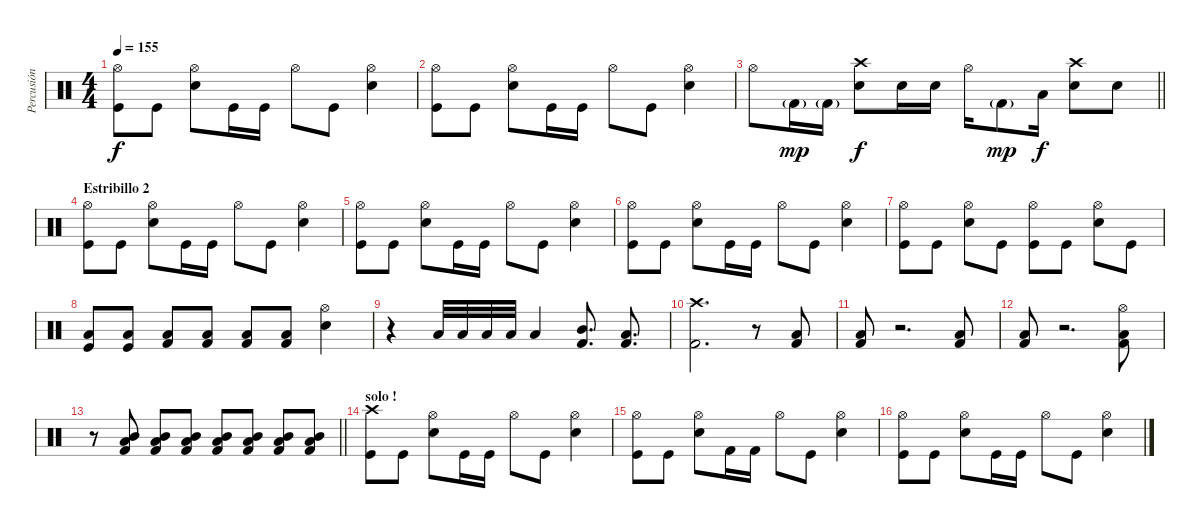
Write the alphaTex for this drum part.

\track ("Percusión" "Percusión") {instrument percussion}
\staff {score}
\articulation defaults
\ts (4 4)
\tempo 155
\clef neutral
\ks c
("Hi-Hat (open)" "Kick (hit)").8{dy f} "Kick (hit)".8 ("Hi-Hat (open)" "Snare (hit) 2").8 "Kick (hit)".16 "Kick (hit)".16 "Hi-Hat (open)".8 "Kick (hit)".8 ("Hi-Hat (open)" "Snare (hit) 2").4 |
("Hi-Hat (open)" "Kick (hit)").8 "Kick (hit)".8 ("Hi-Hat (open)" "Snare (hit) 2").8 "Kick (hit)".16 "Kick (hit)".16 "Hi-Hat (open)".8 "Kick (hit)".8 ("Hi-Hat (open)" "Snare (hit) 2").4 |
\barLineRight lightlight "Hi-Hat (open)".8 "Kick (hit) 2"{g}.16{dy mp} "Kick (hit) 2"{g}.16
("Crash high (hit)" "Snare (hit) 2").8{dy f} "Snare (hit) 2".16 "Snare (hit) 2".16 "Hi-Hat (open)".16 "Kick (hit) 2"{g}.8{dy mp} "Low Floor Tom (hit)".16{dy f} ("Crash high (hit)" "Snare (hit) 2").8 "Snare (hit) 2".8 |
\section ("" "Estribillo 2")
("Hi-Hat (open)" "Kick (hit)").8 "Kick (hit)".8 ("Hi-Hat (open)" "Snare (hit) 2").8 "Kick (hit)".16 "Kick (hit)".16 "Hi-Hat (open)".8 "Kick (hit)".8 ("Hi-Hat (open)" "Snare (hit) 2").4 |
("Hi-Hat (open)" "Kick (hit)").8 "Kick (hit)".8 ("Hi-Hat (open)" "Snare (hit) 2").8 "Kick (hit)".16 "Kick (hit)".16 "Hi-Hat (open)".8 "Kick (hit)".8 ("Hi-Hat (open)" "Snare (hit) 2").4 |
("Hi-Hat (open)" "Kick (hit)").8 "Kick (hit)".8 ("Hi-Hat (open)" "Snare (hit) 2").8 "Kick (hit)".16 "Kick (hit)".16 "Hi-Hat (open)".8 "Kick (hit)".8 ("Hi-Hat (open)" "Snare (hit) 2").4 |
("Hi-Hat (open)" "Kick (hit)").8 "Kick (hit)".8 ("Hi-Hat (open)" "Snare (hit) 2").8 "Kick (hit)".8 ("Hi-Hat (open)" "Kick (hit)").8 "Kick (hit)".8 ("Hi-Hat (open)" "Snare (hit) 2").8 "Kick (hit)".8 |
("Kick (hit)" "Low Tom (hit)").8 ("Kick (hit)" "Low Tom (hit)").8 ("Kick (hit) 2" "Low Tom (hit)").8 ("Kick (hit) 2" "Low Tom (hit)").8 ("Kick (hit) 2" "Low Tom (hit)").8 ("Kick (hit) 2" "Low Tom (hit)").8 ("Hi-Hat (open)" "Snare (hit) 2").4 |
r.4 "Low Tom (hit)".32 "Low Tom (hit)".32 "Low Tom (hit)".32 "Low Tom (hit)".32 "Low Tom (hit)".4 ("Mid Tom (hit)" "Kick (hit) 2").8{d} ("Low Floor Tom (hit)" "Kick (hit) 2").8{d} |
("Crash high (hit)" "Kick (hit) 2").2{d} r.8 ("Low Floor Tom (hit)" "Kick (hit) 2").8 |
("Low Floor Tom (hit)" "Kick (hit) 2").8 r.2{d} ("Low Floor Tom (hit)" "Kick (hit) 2").8 |
("Low Floor Tom (hit)" "Kick (hit) 2").8 r.2{d} ("Hi-Hat (open)" "Low Floor Tom (hit)" "Kick (hit) 2").8{volume 10} |
\barLineRight lightlight
r.8{volume 5} ("Mid Tom (hit)" "Low Floor Tom (hit)" "Kick (hit) 2").8{volume 10} ("Mid Tom (hit)" "Low Floor Tom (hit)" "Kick (hit) 2").8 ("Mid Tom (hit)" "Low Floor Tom (hit)" "Kick (hit) 2").8 ("Mid Tom (hit)" "Low Floor Tom (hit)" "Kick (hit) 2").8 ("Mid Tom (hit)" "Low Floor Tom (hit)" "Kick (hit) 2").8 ("Mid Tom (hit)" "Low Floor Tom (hit)" "Kick (hit) 2").8 ("Mid Tom (hit)" "Low Floor Tom (hit)" "Kick (hit) 2").8 |
\section ("" "solo !")
("Crash high (hit)" "Kick (hit)").8 "Kick (hit)".8 ("Hi-Hat (open)" "Snare (hit) 2").8 "Kick (hit)".16 "Kick (hit)".16 "Hi-Hat (open)".8 "Kick (hit)".8 ("Hi-Hat (open)" "Snare (hit) 2").4 |
("Hi-Hat (open)" "Kick (hit)").8 "Kick (hit)".8 ("Hi-Hat (open)" "Snare (hit) 2").8 "Kick (hit) 2".16 "Kick (hit) 2".16 "Hi-Hat (open)".8 "Kick (hit)".8 ("Hi-Hat (open)" "Snare (hit) 2").4 |
("Hi-Hat (open)" "Kick (hit)").8 "Kick (hit)".8 ("Hi-Hat (open)" "Snare (hit) 2").8 "Kick (hit)".16 "Kick (hit)".16 "Hi-Hat (open)".8 "Kick (hit)".8 ("Hi-Hat (open)" "Snare (hit) 2").4
